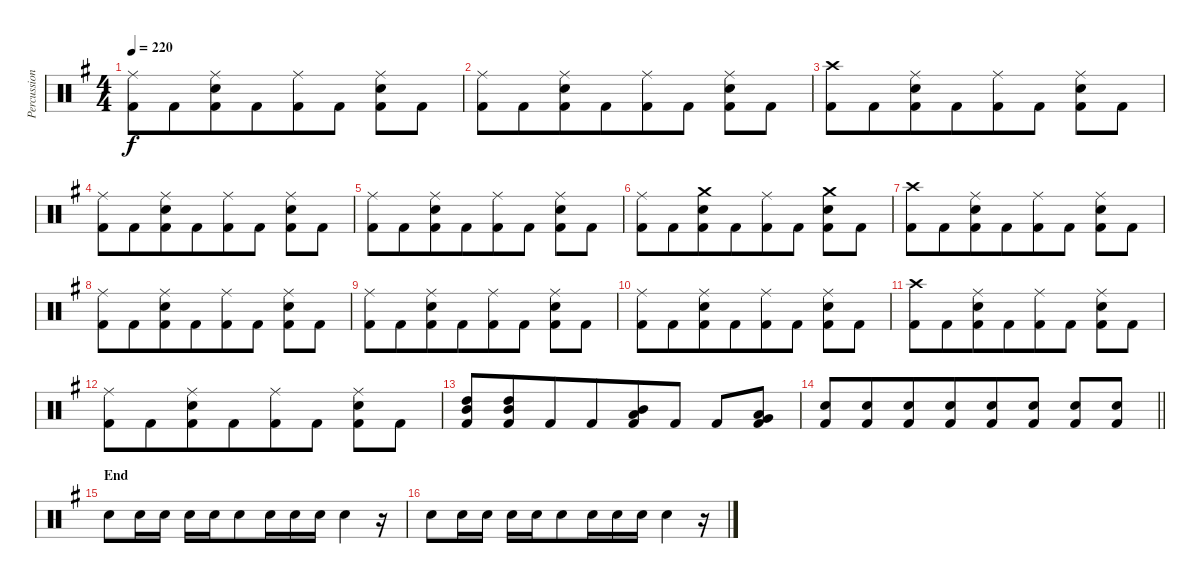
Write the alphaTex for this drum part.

\track ("Percussion" "Percussion") {instrument percussion}
\staff {score}
\articulation defaults
\ts (4 4)
\tempo 220
\clef neutral
\ks eminor
("Ride (middle)" "Kick (hit) 2").8{dy f} "Kick (hit) 2".8{beam merge} ("Ride (middle)" "Snare (hit) 2" "Kick (hit) 2").8{beam merge} "Kick (hit) 2".8{beam merge} ("Ride (middle)" "Kick (hit) 2").8{beam merge} "Kick (hit) 2".8 ("Ride (middle)" "Snare (hit) 2" "Kick (hit) 2").8 "Kick (hit) 2".8 |
("Ride (middle)" "Kick (hit) 2").8 "Kick (hit) 2".8{beam merge} ("Ride (middle)" "Snare (hit) 2" "Kick (hit) 2").8{beam merge} "Kick (hit) 2".8{beam merge} ("Ride (middle)" "Kick (hit) 2").8{beam merge} "Kick (hit) 2".8 ("Ride (middle)" "Snare (hit) 2" "Kick (hit) 2").8 "Kick (hit) 2".8 |
("Crash high (hit)" "Kick (hit) 2").8 "Kick (hit) 2".8{beam merge} ("Ride (middle)" "Snare (hit) 2" "Kick (hit) 2").8{beam merge} "Kick (hit) 2".8{beam merge} ("Ride (middle)" "Kick (hit) 2").8{beam merge} "Kick (hit) 2".8 ("Ride (middle)" "Snare (hit) 2" "Kick (hit) 2").8 "Kick (hit) 2".8 |
("Ride (middle)" "Kick (hit) 2").8 "Kick (hit) 2".8{beam merge} ("Ride (middle)" "Snare (hit) 2" "Kick (hit) 2").8{beam merge} "Kick (hit) 2".8{beam merge} ("Ride (middle)" "Kick (hit) 2").8{beam merge} "Kick (hit) 2".8 ("Ride (middle)" "Snare (hit) 2" "Kick (hit) 2").8 "Kick (hit) 2".8 |
("Ride (middle)" "Kick (hit) 2").8 "Kick (hit) 2".8{beam merge} ("Ride (middle)" "Snare (hit) 2" "Kick (hit) 2").8{beam merge} "Kick (hit) 2".8{beam merge} ("Ride (middle)" "Kick (hit) 2").8{beam merge} "Kick (hit) 2".8 ("Ride (middle)" "Snare (hit) 2" "Kick (hit) 2").8 "Kick (hit) 2".8 |
("Ride (middle)" "Kick (hit) 2").8 "Kick (hit) 2".8{beam merge} ("Crash medium (hit)" "Snare (hit) 2" "Kick (hit) 2").8{beam merge} "Kick (hit) 2".8{beam merge} ("Ride (middle)" "Kick (hit) 2").8{beam merge} "Kick (hit) 2".8 ("Crash medium (hit)" "Snare (hit) 2" "Kick (hit) 2").8 "Kick (hit) 2".8 |
("Crash high (hit)" "Kick (hit) 2").8 "Kick (hit) 2".8{beam merge} ("Ride (middle)" "Snare (hit) 2" "Kick (hit) 2").8{beam merge} "Kick (hit) 2".8{beam merge} ("Ride (middle)" "Kick (hit) 2").8{beam merge} "Kick (hit) 2".8 ("Ride (middle)" "Snare (hit) 2" "Kick (hit) 2").8 "Kick (hit) 2".8 |
("Ride (middle)" "Kick (hit) 2").8 "Kick (hit) 2".8{beam merge} ("Ride (middle)" "Snare (hit) 2" "Kick (hit) 2").8{beam merge} "Kick (hit) 2".8{beam merge} ("Ride (middle)" "Kick (hit) 2").8{beam merge} "Kick (hit) 2".8 ("Ride (middle)" "Snare (hit) 2" "Kick (hit) 2").8 "Kick (hit) 2".8 |
("Ride (middle)" "Kick (hit) 2").8 "Kick (hit) 2".8{beam merge} ("Ride (middle)" "Snare (hit) 2" "Kick (hit) 2").8{beam merge} "Kick (hit) 2".8{beam merge} ("Ride (middle)" "Kick (hit) 2").8{beam merge} "Kick (hit) 2".8 ("Ride (middle)" "Snare (hit) 2" "Kick (hit) 2").8 "Kick (hit) 2".8 |
("Ride (middle)" "Kick (hit) 2").8 "Kick (hit) 2".8{beam merge} ("Ride (middle)" "Snare (hit) 2" "Kick (hit) 2").8{beam merge} "Kick (hit) 2".8{beam merge} ("Ride (middle)" "Kick (hit) 2").8{beam merge} "Kick (hit) 2".8 ("Ride (middle)" "Snare (hit) 2" "Kick (hit) 2").8 "Kick (hit) 2".8 |
("Crash high (hit)" "Kick (hit) 2").8 "Kick (hit) 2".8{beam merge} ("Ride (middle)" "Snare (hit) 2" "Kick (hit) 2").8{beam merge} "Kick (hit) 2".8{beam merge} ("Ride (middle)" "Kick (hit) 2").8{beam merge} "Kick (hit) 2".8 ("Ride (middle)" "Snare (hit) 2" "Kick (hit) 2").8 "Kick (hit) 2".8 |
("Ride (middle)" "Kick (hit) 2").8 "Kick (hit) 2".8{beam merge} ("Ride (middle)" "Snare (hit) 2" "Kick (hit) 2").8{beam merge} "Kick (hit) 2".8{beam merge} ("Ride (middle)" "Kick (hit) 2").8{beam merge} "Kick (hit) 2".8 ("Ride (middle)" "Snare (hit) 2" "Kick (hit) 2").8 "Kick (hit) 2".8 |
("High Tom (hit)" "Mid Tom (hit)" "Kick (hit) 2").8 ("High Tom (hit)" "Mid Tom (hit)" "Kick (hit) 2").8{beam merge} "Kick (hit) 2".8{beam merge} "Kick (hit) 2".8{beam merge} ("Mid Tom (hit)" "Low Tom (hit)" "Kick (hit) 2").8{beam merge} "Kick (hit) 2".8 "Kick (hit) 2".8 ("Low Tom (hit)" "Very Low Tom (hit)" "Kick (hit) 2").8 |
\barLineRight lightlight
("Snare (hit) 2" "Kick (hit) 2").8 ("Snare (hit) 2" "Kick (hit) 2").8{beam merge} ("Snare (hit) 2" "Kick (hit) 2").8{beam merge} ("Snare (hit) 2" "Kick (hit) 2").8{beam merge} ("Snare (hit) 2" "Kick (hit) 2").8{beam merge} ("Snare (hit) 2" "Kick (hit) 2").8 ("Snare (hit) 2" "Kick (hit) 2").8 ("Snare (hit) 2" "Kick (hit) 2").8 |
\section ("" "End")
"Snare (hit) 2".8 "Snare (hit) 2".16 "Snare (hit) 2".16 "Snare (hit) 2".16{beam merge} "Snare (hit) 2".16{beam merge} "Snare (hit) 2".8{beam merge} "Snare (hit) 2".16 "Snare (hit) 2".16{beam merge} "Snare (hit) 2".16 "Snare (hit) 2".4{beam merge} r.16 |
"Snare (hit) 2".8 "Snare (hit) 2".16 "Snare (hit) 2".16 "Snare (hit) 2".16{beam merge} "Snare (hit) 2".16{beam merge} "Snare (hit) 2".8{beam merge} "Snare (hit) 2".16 "Snare (hit) 2".16{beam merge} "Snare (hit) 2".16 "Snare (hit) 2".4{beam merge} r.16
